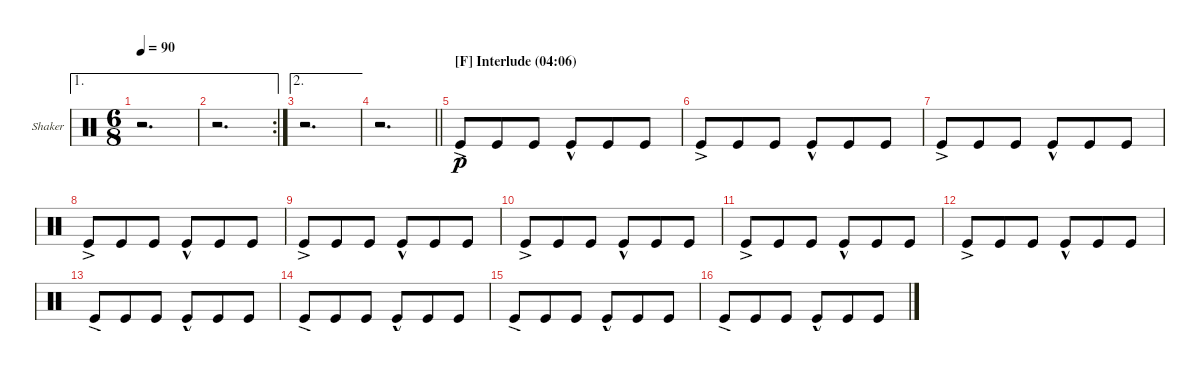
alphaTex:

\defaultSystemsLayout 4
\bracketExtendMode groupsimilarinstruments
\firstSystemTrackNameOrientation horizontal
\otherSystemsTrackNameOrientation horizontal
\track ("Shaker" "Shaker") {multiBarRest instrument percussion}
\staff {score}
\articulation defaults
\ae 1
\ts (6 8)
\tempo 90
\clef neutral
\ks c
r.2{d dy p} |
\ae 1
\rc 2
r.2{d} |
\ae 2
r.2{d} |
\barLineRight lightlight
r.2{d} |
\section ("F" "Interlude (04:06)")
"Kick (hit)"{ac}.8 "Kick (hit)".8 "Kick (hit)".8 "Kick (hit)"{hac}.8 "Kick (hit)".8 "Kick (hit)".8 |
"Kick (hit)"{ac}.8 "Kick (hit)".8 "Kick (hit)".8 "Kick (hit)"{hac}.8 "Kick (hit)".8 "Kick (hit)".8 |
"Kick (hit)"{ac}.8 "Kick (hit)".8 "Kick (hit)".8 "Kick (hit)"{hac}.8 "Kick (hit)".8 "Kick (hit)".8 |
"Kick (hit)"{ac}.8 "Kick (hit)".8 "Kick (hit)".8 "Kick (hit)"{hac}.8 "Kick (hit)".8 "Kick (hit)".8 |
"Kick (hit)"{ac}.8 "Kick (hit)".8 "Kick (hit)".8 "Kick (hit)"{hac}.8 "Kick (hit)".8 "Kick (hit)".8 |
"Kick (hit)"{ac}.8 "Kick (hit)".8 "Kick (hit)".8 "Kick (hit)"{hac}.8 "Kick (hit)".8 "Kick (hit)".8 |
"Kick (hit)"{ac}.8 "Kick (hit)".8 "Kick (hit)".8 "Kick (hit)"{hac}.8 "Kick (hit)".8 "Kick (hit)".8 |
"Kick (hit)"{ac}.8 "Kick (hit)".8 "Kick (hit)".8 "Kick (hit)"{hac}.8 "Kick (hit)".8 "Kick (hit)".8 |
"Kick (hit)"{ac}.8 "Kick (hit)".8 "Kick (hit)".8 "Kick (hit)"{hac}.8 "Kick (hit)".8 "Kick (hit)".8 |
"Kick (hit)"{ac}.8 "Kick (hit)".8 "Kick (hit)".8 "Kick (hit)"{hac}.8 "Kick (hit)".8 "Kick (hit)".8 |
"Kick (hit)"{ac}.8 "Kick (hit)".8 "Kick (hit)".8 "Kick (hit)"{hac}.8 "Kick (hit)".8 "Kick (hit)".8 |
"Kick (hit)"{ac}.8 "Kick (hit)".8 "Kick (hit)".8 "Kick (hit)"{hac}.8 "Kick (hit)".8 "Kick (hit)".8
